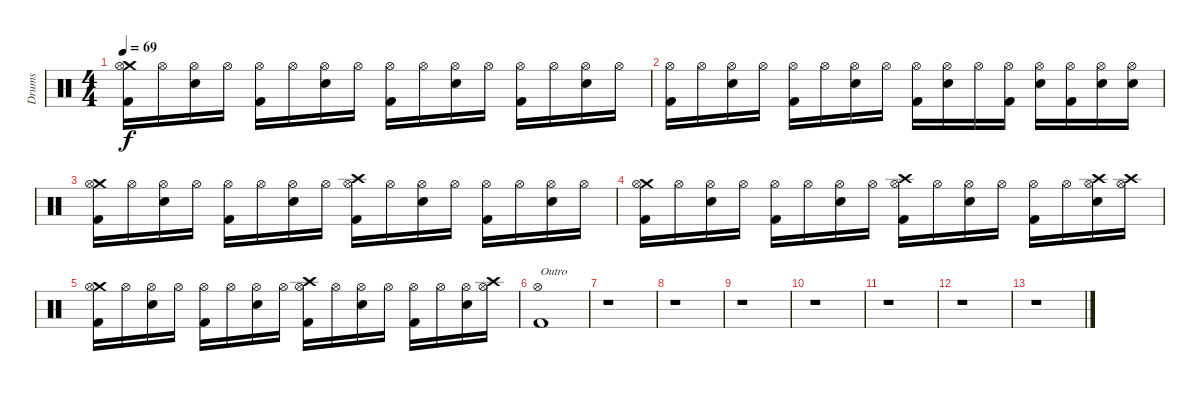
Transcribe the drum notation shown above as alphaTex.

\track ("Drums" "Drums") {instrument percussion}
\staff {score}
\articulation defaults
\ts (4 4)
\tempo 69
\clef neutral
\ks c
("Crash medium (hit)" "Hi-Hat (open)" "Kick (hit) 2").16{dy f} "Hi-Hat (open)".16 ("Hi-Hat (open)" "Snare (hit) 2").16 "Hi-Hat (open)".16 ("Hi-Hat (open)" "Kick (hit) 2").16 "Hi-Hat (open)".16 ("Hi-Hat (open)" "Snare (hit) 2").16 "Hi-Hat (open)".16 ("Hi-Hat (open)" "Kick (hit) 2").16 "Hi-Hat (open)".16 ("Hi-Hat (open)" "Snare (hit) 2").16 "Hi-Hat (open)".16 ("Hi-Hat (open)" "Kick (hit) 2").16 "Hi-Hat (open)".16 ("Hi-Hat (open)" "Snare (hit) 2").16 "Hi-Hat (open)".16 |
("Hi-Hat (open)" "Kick (hit) 2").16 "Hi-Hat (open)".16 ("Hi-Hat (open)" "Snare (hit) 2").16 "Hi-Hat (open)".16 ("Hi-Hat (open)" "Kick (hit) 2").16 "Hi-Hat (open)".16 ("Hi-Hat (open)" "Snare (hit) 2").16 "Hi-Hat (open)".16 ("Hi-Hat (open)" "Kick (hit) 2").16 ("Hi-Hat (open)" "Snare (hit) 2").16 "Hi-Hat (open)".16 ("Hi-Hat (open)" "Kick (hit) 2").16 ("Hi-Hat (open)" "Snare (hit) 2").16 ("Hi-Hat (open)" "Kick (hit) 2").16 ("Hi-Hat (open)" "Snare (hit) 2").16 ("Hi-Hat (open)" "Snare (hit) 2").16 |
("Crash medium (hit)" "Hi-Hat (open)" "Kick (hit) 2").16 "Hi-Hat (open)".16 ("Hi-Hat (open)" "Snare (hit) 2").16 "Hi-Hat (open)".16 ("Hi-Hat (open)" "Kick (hit) 2").16 "Hi-Hat (open)".16 ("Hi-Hat (open)" "Snare (hit) 2").16 "Hi-Hat (open)".16 ("Crash high (hit)" "Hi-Hat (open)" "Kick (hit) 2").16 "Hi-Hat (open)".16 ("Hi-Hat (open)" "Snare (hit) 2").16 "Hi-Hat (open)".16 ("Hi-Hat (open)" "Kick (hit) 2").16 "Hi-Hat (open)".16 ("Hi-Hat (open)" "Snare (hit) 2").16 "Hi-Hat (open)".16 |
("Crash medium (hit)" "Hi-Hat (open)" "Kick (hit) 2").16 "Hi-Hat (open)".16 ("Hi-Hat (open)" "Snare (hit) 2").16 "Hi-Hat (open)".16 ("Hi-Hat (open)" "Kick (hit) 2").16 "Hi-Hat (open)".16 ("Hi-Hat (open)" "Snare (hit) 2").16 "Hi-Hat (open)".16 ("Crash high (hit)" "Hi-Hat (open)" "Kick (hit) 2").16 "Hi-Hat (open)".16 ("Hi-Hat (open)" "Snare (hit) 2").16 "Hi-Hat (open)".16 ("Hi-Hat (open)" "Kick (hit) 2").16 "Hi-Hat (open)".16 ("Crash high (hit)" "Hi-Hat (open)" "Snare (hit) 2").16 ("Crash high (hit)" "Hi-Hat (open)").16 |
("Crash medium (hit)" "Hi-Hat (open)" "Kick (hit) 2").16 "Hi-Hat (open)".16 ("Hi-Hat (open)" "Snare (hit) 2").16 "Hi-Hat (open)".16 ("Hi-Hat (open)" "Kick (hit) 2").16 "Hi-Hat (open)".16 ("Hi-Hat (open)" "Snare (hit) 2").16 "Hi-Hat (open)".16 ("Crash high (hit)" "Hi-Hat (open)" "Kick (hit) 2").16 "Hi-Hat (open)".16 ("Hi-Hat (open)" "Snare (hit) 2").16 "Hi-Hat (open)".16 ("Hi-Hat (open)" "Kick (hit) 2").16 "Hi-Hat (open)".16 ("Hi-Hat (open)" "Snare (hit) 2").16 ("Crash high (hit)" "Hi-Hat (open)").16 |
("Hi-Hat (open)" "Kick (hit) 2").1{txt "Outro"} |
r.1 |
r.1 |
r.1 |
r.1 |
r.1 |
r.1 |
r.1
